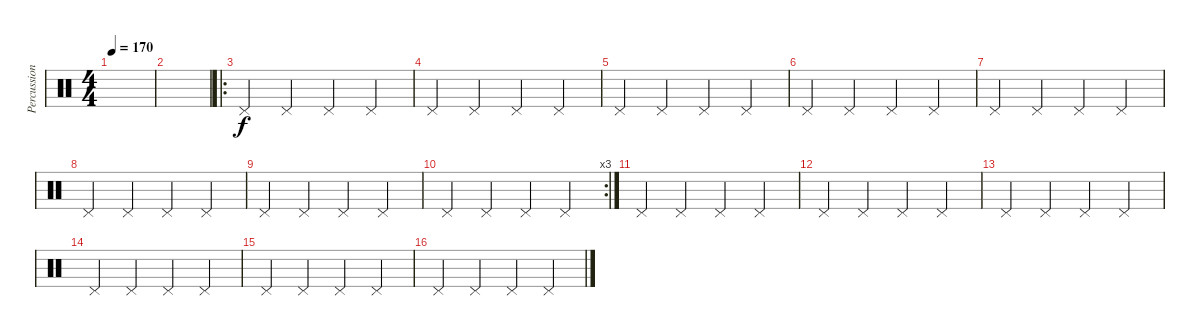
\track ("Percussion" "Percussion") {instrument percussion}
\staff {score}
\articulation defaults
\ts (4 4)
\tempo 170
\clef neutral
\ks c
|
|
\ro "Pedal Hi-Hat (hit)".4 "Pedal Hi-Hat (hit)".4 "Pedal Hi-Hat (hit)".4 "Pedal Hi-Hat (hit)".4
|
"Pedal Hi-Hat (hit)".4 "Pedal Hi-Hat (hit)".4 "Pedal Hi-Hat (hit)".4 "Pedal Hi-Hat (hit)".4 |
"Pedal Hi-Hat (hit)".4 "Pedal Hi-Hat (hit)".4 "Pedal Hi-Hat (hit)".4 "Pedal Hi-Hat (hit)".4 |
"Pedal Hi-Hat (hit)".4 "Pedal Hi-Hat (hit)".4 "Pedal Hi-Hat (hit)".4 "Pedal Hi-Hat (hit)".4 |
"Pedal Hi-Hat (hit)".4 "Pedal Hi-Hat (hit)".4 "Pedal Hi-Hat (hit)".4 "Pedal Hi-Hat (hit)".4 |
"Pedal Hi-Hat (hit)".4 "Pedal Hi-Hat (hit)".4 "Pedal Hi-Hat (hit)".4 "Pedal Hi-Hat (hit)".4 |
"Pedal Hi-Hat (hit)".4 "Pedal Hi-Hat (hit)".4 "Pedal Hi-Hat (hit)".4 "Pedal Hi-Hat (hit)".4 |
\rc 3 "Pedal Hi-Hat (hit)".4 "Pedal Hi-Hat (hit)".4 "Pedal Hi-Hat (hit)".4 "Pedal Hi-Hat (hit)".4
|
"Pedal Hi-Hat (hit)".4 "Pedal Hi-Hat (hit)".4 "Pedal Hi-Hat (hit)".4 "Pedal Hi-Hat (hit)".4 |
"Pedal Hi-Hat (hit)".4 "Pedal Hi-Hat (hit)".4 "Pedal Hi-Hat (hit)".4 "Pedal Hi-Hat (hit)".4 |
"Pedal Hi-Hat (hit)".4 "Pedal Hi-Hat (hit)".4 "Pedal Hi-Hat (hit)".4 "Pedal Hi-Hat (hit)".4 |
"Pedal Hi-Hat (hit)".4 "Pedal Hi-Hat (hit)".4 "Pedal Hi-Hat (hit)".4 "Pedal Hi-Hat (hit)".4 |
"Pedal Hi-Hat (hit)".4 "Pedal Hi-Hat (hit)".4 "Pedal Hi-Hat (hit)".4 "Pedal Hi-Hat (hit)".4 |
"Pedal Hi-Hat (hit)".4 "Pedal Hi-Hat (hit)".4 "Pedal Hi-Hat (hit)".4 "Pedal Hi-Hat (hit)".4
